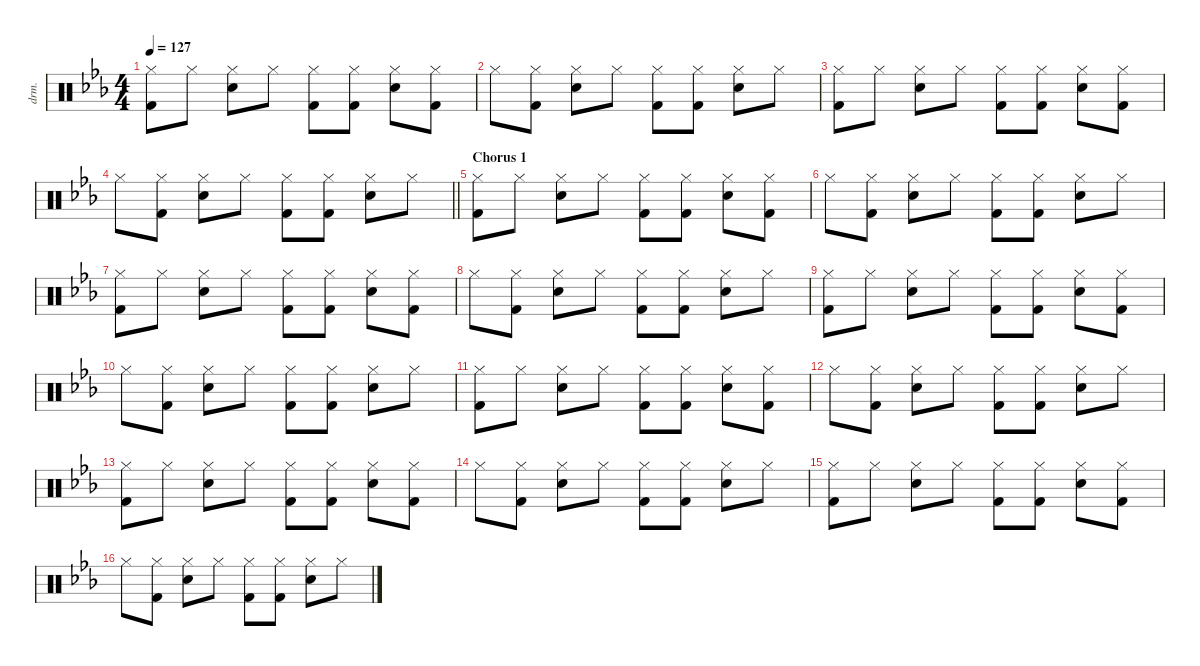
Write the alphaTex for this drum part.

\defaultSystemsLayout 4
\hideDynamics
\bracketExtendMode nobrackets
\otherSystemsTrackNameOrientation horizontal
\track ("Drums" "drm.") {defaultSystemsLayout 4 instrument percussion}
\staff {score}
\articulation defaults
\ts (4 4)
\tempo 127
\clef neutral
\ks eb
("Hi-Hat (closed)"{acc forcenatural} "Kick (hit) 2"{acc forcenatural}).8{dy f beam Down} "Hi-Hat (closed)"{acc forcenatural}.8{beam Down} ("Hi-Hat (closed)"{acc forcenatural} "Snare (hit) 2"{acc forcenatural}).8{beam Down} "Hi-Hat (closed)"{acc forcenatural}.8{beam Down} ("Hi-Hat (closed)"{acc forcenatural} "Kick (hit) 2"{acc forcenatural}).8{beam Down} ("Hi-Hat (closed)"{acc forcenatural} "Kick (hit) 2"{acc forcenatural}).8{beam Down} ("Hi-Hat (closed)"{acc forcenatural} "Snare (hit) 2"{acc forcenatural}).8{beam Down} ("Hi-Hat (closed)"{acc forcenatural} "Kick (hit) 2"{acc forcenatural}).8{beam Down} |
"Hi-Hat (closed)"{acc forcenatural}.8{beam Down} ("Hi-Hat (closed)"{acc forcenatural} "Kick (hit) 2"{acc forcenatural}).8{beam Down} ("Hi-Hat (closed)"{acc forcenatural} "Snare (hit) 2"{acc forcenatural}).8{beam Down} "Hi-Hat (closed)"{acc forcenatural}.8{beam Down} ("Hi-Hat (closed)"{acc forcenatural} "Kick (hit) 2"{acc forcenatural}).8{beam Down} ("Hi-Hat (closed)"{acc forcenatural} "Kick (hit) 2"{acc forcenatural}).8{beam Down} ("Hi-Hat (closed)"{acc forcenatural} "Snare (hit) 2"{acc forcenatural}).8{beam Down} "Hi-Hat (closed)"{acc forcenatural}.8{beam Down} |
("Hi-Hat (closed)"{acc forcenatural} "Kick (hit) 2"{acc forcenatural}).8{beam Down} "Hi-Hat (closed)"{acc forcenatural}.8{beam Down} ("Hi-Hat (closed)"{acc forcenatural} "Snare (hit) 2"{acc forcenatural}).8{beam Down} "Hi-Hat (closed)"{acc forcenatural}.8{beam Down} ("Hi-Hat (closed)"{acc forcenatural} "Kick (hit) 2"{acc forcenatural}).8{beam Down} ("Hi-Hat (closed)"{acc forcenatural} "Kick (hit) 2"{acc forcenatural}).8{beam Down} ("Hi-Hat (closed)"{acc forcenatural} "Snare (hit) 2"{acc forcenatural}).8{beam Down} ("Hi-Hat (closed)"{acc forcenatural} "Kick (hit) 2"{acc forcenatural}).8{beam Down} |
\barLineRight lightlight "Hi-Hat (closed)"{acc forcenatural}.8{beam Down}
("Hi-Hat (closed)"{acc forcenatural} "Kick (hit) 2"{acc forcenatural}).8{beam Down} ("Hi-Hat (closed)"{acc forcenatural} "Snare (hit) 2"{acc forcenatural}).8{beam Down} "Hi-Hat (closed)"{acc forcenatural}.8{beam Down} ("Hi-Hat (closed)"{acc forcenatural} "Kick (hit) 2"{acc forcenatural}).8{beam Down} ("Hi-Hat (closed)"{acc forcenatural} "Kick (hit) 2"{acc forcenatural}).8{beam Down} ("Hi-Hat (closed)"{acc forcenatural} "Snare (hit) 2"{acc forcenatural}).8{beam Down} "Hi-Hat (closed)"{acc forcenatural}.8{beam Down} |
\section ("" "Chorus 1")
("Hi-Hat (closed)"{acc forcenatural} "Kick (hit) 2"{acc forcenatural}).8{beam Down} "Hi-Hat (closed)"{acc forcenatural}.8{beam Down} ("Hi-Hat (closed)"{acc forcenatural} "Snare (hit) 2"{acc forcenatural}).8{beam Down} "Hi-Hat (closed)"{acc forcenatural}.8{beam Down} ("Hi-Hat (closed)"{acc forcenatural} "Kick (hit) 2"{acc forcenatural}).8{beam Down} ("Hi-Hat (closed)"{acc forcenatural} "Kick (hit) 2"{acc forcenatural}).8{beam Down} ("Hi-Hat (closed)"{acc forcenatural} "Snare (hit) 2"{acc forcenatural}).8{beam Down} ("Hi-Hat (closed)"{acc forcenatural} "Kick (hit) 2"{acc forcenatural}).8{beam Down} |
"Hi-Hat (closed)"{acc forcenatural}.8{beam Down} ("Hi-Hat (closed)"{acc forcenatural} "Kick (hit) 2"{acc forcenatural}).8{beam Down} ("Hi-Hat (closed)"{acc forcenatural} "Snare (hit) 2"{acc forcenatural}).8{beam Down} "Hi-Hat (closed)"{acc forcenatural}.8{beam Down} ("Hi-Hat (closed)"{acc forcenatural} "Kick (hit) 2"{acc forcenatural}).8{beam Down} ("Hi-Hat (closed)"{acc forcenatural} "Kick (hit) 2"{acc forcenatural}).8{beam Down} ("Hi-Hat (closed)"{acc forcenatural} "Snare (hit) 2"{acc forcenatural}).8{beam Down} "Hi-Hat (closed)"{acc forcenatural}.8{beam Down} |
("Hi-Hat (closed)"{acc forcenatural} "Kick (hit) 2"{acc forcenatural}).8{beam Down} "Hi-Hat (closed)"{acc forcenatural}.8{beam Down} ("Hi-Hat (closed)"{acc forcenatural} "Snare (hit) 2"{acc forcenatural}).8{beam Down} "Hi-Hat (closed)"{acc forcenatural}.8{beam Down} ("Hi-Hat (closed)"{acc forcenatural} "Kick (hit) 2"{acc forcenatural}).8{beam Down} ("Hi-Hat (closed)"{acc forcenatural} "Kick (hit) 2"{acc forcenatural}).8{beam Down} ("Hi-Hat (closed)"{acc forcenatural} "Snare (hit) 2"{acc forcenatural}).8{beam Down} ("Hi-Hat (closed)"{acc forcenatural} "Kick (hit) 2"{acc forcenatural}).8{beam Down} |
"Hi-Hat (closed)"{acc forcenatural}.8{beam Down} ("Hi-Hat (closed)"{acc forcenatural} "Kick (hit) 2"{acc forcenatural}).8{beam Down} ("Hi-Hat (closed)"{acc forcenatural} "Snare (hit) 2"{acc forcenatural}).8{beam Down} "Hi-Hat (closed)"{acc forcenatural}.8{beam Down} ("Hi-Hat (closed)"{acc forcenatural} "Kick (hit) 2"{acc forcenatural}).8{beam Down} ("Hi-Hat (closed)"{acc forcenatural} "Kick (hit) 2"{acc forcenatural}).8{beam Down} ("Hi-Hat (closed)"{acc forcenatural} "Snare (hit) 2"{acc forcenatural}).8{beam Down} "Hi-Hat (closed)"{acc forcenatural}.8{beam Down} |
("Hi-Hat (closed)"{acc forcenatural} "Kick (hit) 2"{acc forcenatural}).8{beam Down} "Hi-Hat (closed)"{acc forcenatural}.8{beam Down} ("Hi-Hat (closed)"{acc forcenatural} "Snare (hit) 2"{acc forcenatural}).8{beam Down} "Hi-Hat (closed)"{acc forcenatural}.8{beam Down} ("Hi-Hat (closed)"{acc forcenatural} "Kick (hit) 2"{acc forcenatural}).8{beam Down} ("Hi-Hat (closed)"{acc forcenatural} "Kick (hit) 2"{acc forcenatural}).8{beam Down} ("Hi-Hat (closed)"{acc forcenatural} "Snare (hit) 2"{acc forcenatural}).8{beam Down} ("Hi-Hat (closed)"{acc forcenatural} "Kick (hit) 2"{acc forcenatural}).8{beam Down} |
"Hi-Hat (closed)"{acc forcenatural}.8{beam Down} ("Hi-Hat (closed)"{acc forcenatural} "Kick (hit) 2"{acc forcenatural}).8{beam Down} ("Hi-Hat (closed)"{acc forcenatural} "Snare (hit) 2"{acc forcenatural}).8{beam Down} "Hi-Hat (closed)"{acc forcenatural}.8{beam Down} ("Hi-Hat (closed)"{acc forcenatural} "Kick (hit) 2"{acc forcenatural}).8{beam Down} ("Hi-Hat (closed)"{acc forcenatural} "Kick (hit) 2"{acc forcenatural}).8{beam Down} ("Hi-Hat (closed)"{acc forcenatural} "Snare (hit) 2"{acc forcenatural}).8{beam Down} "Hi-Hat (closed)"{acc forcenatural}.8{beam Down} |
("Hi-Hat (closed)"{acc forcenatural} "Kick (hit) 2"{acc forcenatural}).8{beam Down} "Hi-Hat (closed)"{acc forcenatural}.8{beam Down} ("Hi-Hat (closed)"{acc forcenatural} "Snare (hit) 2"{acc forcenatural}).8{beam Down} "Hi-Hat (closed)"{acc forcenatural}.8{beam Down} ("Hi-Hat (closed)"{acc forcenatural} "Kick (hit) 2"{acc forcenatural}).8{beam Down} ("Hi-Hat (closed)"{acc forcenatural} "Kick (hit) 2"{acc forcenatural}).8{beam Down} ("Hi-Hat (closed)"{acc forcenatural} "Snare (hit) 2"{acc forcenatural}).8{beam Down} ("Hi-Hat (closed)"{acc forcenatural} "Kick (hit) 2"{acc forcenatural}).8{beam Down} |
"Hi-Hat (closed)"{acc forcenatural}.8{beam Down} ("Hi-Hat (closed)"{acc forcenatural} "Kick (hit) 2"{acc forcenatural}).8{beam Down} ("Hi-Hat (closed)"{acc forcenatural} "Snare (hit) 2"{acc forcenatural}).8{beam Down} "Hi-Hat (closed)"{acc forcenatural}.8{beam Down} ("Hi-Hat (closed)"{acc forcenatural} "Kick (hit) 2"{acc forcenatural}).8{beam Down} ("Hi-Hat (closed)"{acc forcenatural} "Kick (hit) 2"{acc forcenatural}).8{beam Down} ("Hi-Hat (closed)"{acc forcenatural} "Snare (hit) 2"{acc forcenatural}).8{beam Down} "Hi-Hat (closed)"{acc forcenatural}.8{beam Down} |
("Hi-Hat (closed)"{acc forcenatural} "Kick (hit) 2"{acc forcenatural}).8{beam Down} "Hi-Hat (closed)"{acc forcenatural}.8{beam Down} ("Hi-Hat (closed)"{acc forcenatural} "Snare (hit) 2"{acc forcenatural}).8{beam Down} "Hi-Hat (closed)"{acc forcenatural}.8{beam Down} ("Hi-Hat (closed)"{acc forcenatural} "Kick (hit) 2"{acc forcenatural}).8{beam Down} ("Hi-Hat (closed)"{acc forcenatural} "Kick (hit) 2"{acc forcenatural}).8{beam Down} ("Hi-Hat (closed)"{acc forcenatural} "Snare (hit) 2"{acc forcenatural}).8{beam Down} ("Hi-Hat (closed)"{acc forcenatural} "Kick (hit) 2"{acc forcenatural}).8{beam Down} |
"Hi-Hat (closed)"{acc forcenatural}.8{beam Down} ("Hi-Hat (closed)"{acc forcenatural} "Kick (hit) 2"{acc forcenatural}).8{beam Down} ("Hi-Hat (closed)"{acc forcenatural} "Snare (hit) 2"{acc forcenatural}).8{beam Down} "Hi-Hat (closed)"{acc forcenatural}.8{beam Down} ("Hi-Hat (closed)"{acc forcenatural} "Kick (hit) 2"{acc forcenatural}).8{beam Down} ("Hi-Hat (closed)"{acc forcenatural} "Kick (hit) 2"{acc forcenatural}).8{beam Down} ("Hi-Hat (closed)"{acc forcenatural} "Snare (hit) 2"{acc forcenatural}).8{beam Down} "Hi-Hat (closed)"{acc forcenatural}.8{beam Down} |
("Hi-Hat (closed)"{acc forcenatural} "Kick (hit) 2"{acc forcenatural}).8{beam Down} "Hi-Hat (closed)"{acc forcenatural}.8{beam Down} ("Hi-Hat (closed)"{acc forcenatural} "Snare (hit) 2"{acc forcenatural}).8{beam Down} "Hi-Hat (closed)"{acc forcenatural}.8{beam Down} ("Hi-Hat (closed)"{acc forcenatural} "Kick (hit) 2"{acc forcenatural}).8{beam Down} ("Hi-Hat (closed)"{acc forcenatural} "Kick (hit) 2"{acc forcenatural}).8{beam Down} ("Hi-Hat (closed)"{acc forcenatural} "Snare (hit) 2"{acc forcenatural}).8{beam Down} ("Hi-Hat (closed)"{acc forcenatural} "Kick (hit) 2"{acc forcenatural}).8{beam Down} |
"Hi-Hat (closed)"{acc forcenatural}.8{beam Down} ("Hi-Hat (closed)"{acc forcenatural} "Kick (hit) 2"{acc forcenatural}).8{beam Down} ("Hi-Hat (closed)"{acc forcenatural} "Snare (hit) 2"{acc forcenatural}).8{beam Down} "Hi-Hat (closed)"{acc forcenatural}.8{beam Down} ("Hi-Hat (closed)"{acc forcenatural} "Kick (hit) 2"{acc forcenatural}).8{beam Down} ("Hi-Hat (closed)"{acc forcenatural} "Kick (hit) 2"{acc forcenatural}).8{beam Down} ("Hi-Hat (closed)"{acc forcenatural} "Snare (hit) 2"{acc forcenatural}).8{beam Down} "Hi-Hat (closed)"{acc forcenatural}.8{beam Down}
